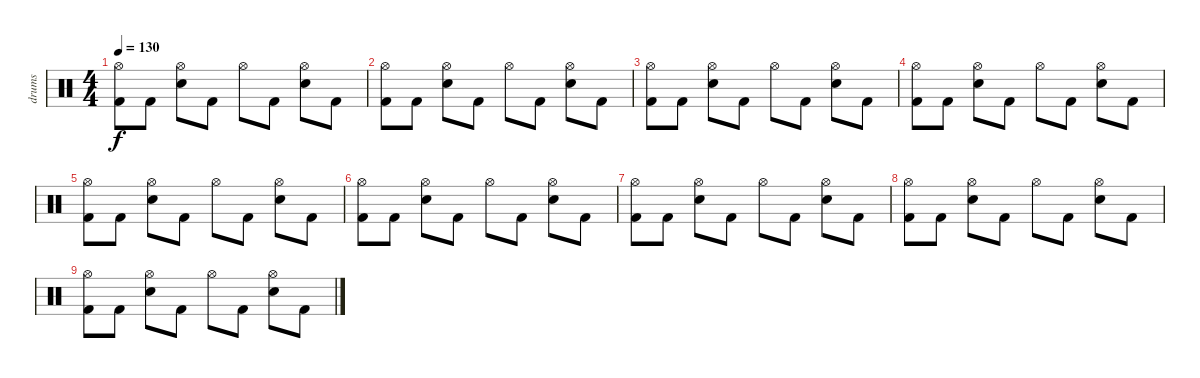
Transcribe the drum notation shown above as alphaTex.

\track ("drums" "drums") {instrument percussion}
\staff {score}
\articulation defaults
\ts (4 4)
\tempo 130
\clef neutral
\ks c
("Hi-Hat (open)" "Kick (hit) 2").8{dy f} "Kick (hit) 2".8 ("Hi-Hat (open)" "Snare (hit) 2").8 "Kick (hit) 2".8 "Hi-Hat (open)".8 "Kick (hit) 2".8 ("Hi-Hat (open)" "Snare (hit) 2").8 "Kick (hit) 2".8 |
("Hi-Hat (open)" "Kick (hit) 2").8 "Kick (hit) 2".8 ("Hi-Hat (open)" "Snare (hit) 2").8 "Kick (hit) 2".8 "Hi-Hat (open)".8 "Kick (hit) 2".8 ("Hi-Hat (open)" "Snare (hit) 2").8 "Kick (hit) 2".8 |
("Hi-Hat (open)" "Kick (hit) 2").8 "Kick (hit) 2".8 ("Hi-Hat (open)" "Snare (hit) 2").8 "Kick (hit) 2".8 "Hi-Hat (open)".8 "Kick (hit) 2".8 ("Hi-Hat (open)" "Snare (hit) 2").8 "Kick (hit) 2".8 |
("Hi-Hat (open)" "Kick (hit) 2").8 "Kick (hit) 2".8 ("Hi-Hat (open)" "Snare (hit) 2").8 "Kick (hit) 2".8 "Hi-Hat (open)".8 "Kick (hit) 2".8 ("Hi-Hat (open)" "Snare (hit) 2").8 "Kick (hit) 2".8 |
("Hi-Hat (open)" "Kick (hit) 2").8 "Kick (hit) 2".8 ("Hi-Hat (open)" "Snare (hit) 2").8 "Kick (hit) 2".8 "Hi-Hat (open)".8 "Kick (hit) 2".8 ("Hi-Hat (open)" "Snare (hit) 2").8 "Kick (hit) 2".8 |
("Hi-Hat (open)" "Kick (hit) 2").8 "Kick (hit) 2".8 ("Hi-Hat (open)" "Snare (hit) 2").8 "Kick (hit) 2".8 "Hi-Hat (open)".8 "Kick (hit) 2".8 ("Hi-Hat (open)" "Snare (hit) 2").8 "Kick (hit) 2".8 |
("Hi-Hat (open)" "Kick (hit) 2").8 "Kick (hit) 2".8 ("Hi-Hat (open)" "Snare (hit) 2").8 "Kick (hit) 2".8 "Hi-Hat (open)".8 "Kick (hit) 2".8 ("Hi-Hat (open)" "Snare (hit) 2").8 "Kick (hit) 2".8 |
("Hi-Hat (open)" "Kick (hit) 2").8 "Kick (hit) 2".8 ("Hi-Hat (open)" "Snare (hit) 2").8 "Kick (hit) 2".8 "Hi-Hat (open)".8 "Kick (hit) 2".8 ("Hi-Hat (open)" "Snare (hit) 2").8 "Kick (hit) 2".8 |
("Hi-Hat (open)" "Kick (hit) 2").8 "Kick (hit) 2".8 ("Hi-Hat (open)" "Snare (hit) 2").8 "Kick (hit) 2".8 "Hi-Hat (open)".8 "Kick (hit) 2".8 ("Hi-Hat (open)" "Snare (hit) 2").8 "Kick (hit) 2".8
